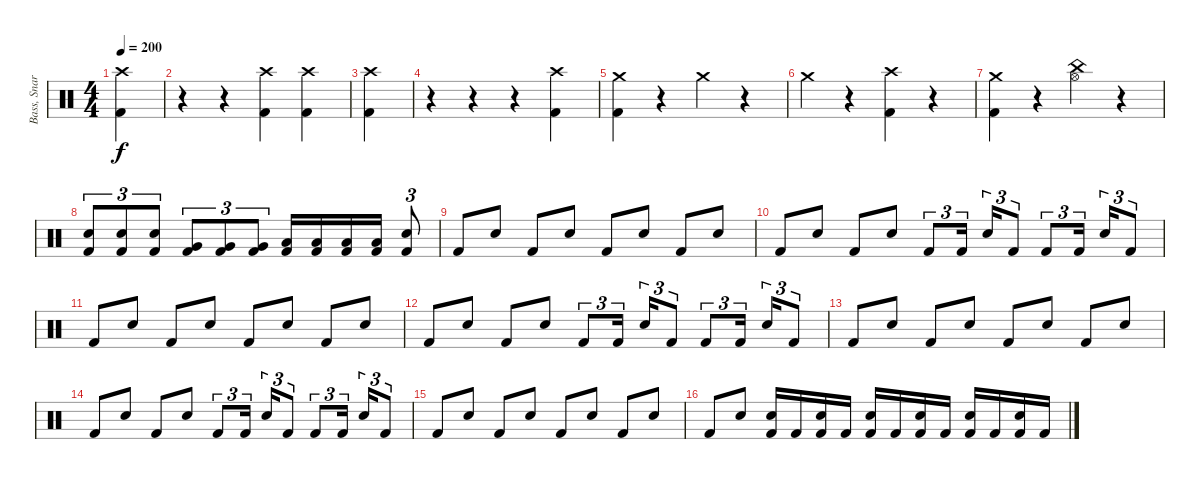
\track ("Bass, Snare & Toms" "Bass, Snar") {instrument percussion}
\staff {score}
\articulation defaults
\ts (4 4)
\tempo 200
\clef neutral
\ks c
("Crash high (hit)" "Kick (hit) 2").4{dy f} |
r.4 r.4 ("Crash high (hit)" "Kick (hit) 2").4 ("Crash high (hit)" "Kick (hit) 2").4 |
("Crash high (hit)" "Kick (hit) 2").4 |
r.4 r.4 r.4 ("Crash high (hit)" "Kick (hit) 2").4 |
("Crash medium (hit)" "Kick (hit) 2").4 r.4 "Crash medium (hit)".4 r.4 |
"Crash medium (hit)".4 r.4 ("Crash high (hit)" "Kick (hit) 2").4 r.4 |
("Crash medium (hit)" "Kick (hit) 2").4 r.4 ("Hi-Hat (open)" "China (hit)").4 r.4 |
("Electric Snare (hit)" "Kick (hit) 2").8{tu (3 2)} ("Electric Snare (hit)" "Kick (hit) 2").8{tu (3 2)} ("Electric Snare (hit)" "Kick (hit) 2").8{tu (3 2)} ("Very Low Tom (hit)" "Kick (hit) 2").8{tu (3 2)} ("Very Low Tom (hit)" "Kick (hit) 2").8{tu (3 2)} ("Very Low Tom (hit)" "Kick (hit) 2").8{tu (3 2)} ("Low Floor Tom (hit)" "Kick (hit) 2").16 ("Low Floor Tom (hit)" "Kick (hit) 2").16 ("Low Floor Tom (hit)" "Kick (hit) 2").16 ("Low Floor Tom (hit)" "Kick (hit) 2").16 ("Electric Snare (hit)" "Kick (hit) 2").8{tu (3 2)} |
"Kick (hit) 2".8 "Electric Snare (hit)".8 "Kick (hit) 2".8 "Electric Snare (hit)".8 "Kick (hit) 2".8 "Electric Snare (hit)".8 "Kick (hit) 2".8 "Electric Snare (hit)".8 |
"Kick (hit) 2".8 "Electric Snare (hit)".8 "Kick (hit) 2".8 "Electric Snare (hit)".8 "Kick (hit) 2".8{tu (3 2)} "Kick (hit) 2".16{tu (3 2)} "Electric Snare (hit)".16{tu (3 2)} "Kick (hit) 2".8{tu (3 2)} "Kick (hit) 2".8{tu (3 2)} "Kick (hit) 2".16{tu (3 2)} "Electric Snare (hit)".16{tu (3 2)} "Kick (hit) 2".8{tu (3 2)} |
"Kick (hit) 2".8 "Electric Snare (hit)".8 "Kick (hit) 2".8 "Electric Snare (hit)".8 "Kick (hit) 2".8 "Electric Snare (hit)".8 "Kick (hit) 2".8 "Electric Snare (hit)".8 |
"Kick (hit) 2".8 "Electric Snare (hit)".8 "Kick (hit) 2".8 "Electric Snare (hit)".8 "Kick (hit) 2".8{tu (3 2)} "Kick (hit) 2".16{tu (3 2)} "Electric Snare (hit)".16{tu (3 2)} "Kick (hit) 2".8{tu (3 2)} "Kick (hit) 2".8{tu (3 2)} "Kick (hit) 2".16{tu (3 2)} "Electric Snare (hit)".16{tu (3 2)} "Kick (hit) 2".8{tu (3 2)} |
"Kick (hit) 2".8 "Electric Snare (hit)".8 "Kick (hit) 2".8 "Electric Snare (hit)".8 "Kick (hit) 2".8 "Electric Snare (hit)".8 "Kick (hit) 2".8 "Electric Snare (hit)".8 |
"Kick (hit) 2".8 "Electric Snare (hit)".8 "Kick (hit) 2".8 "Electric Snare (hit)".8 "Kick (hit) 2".8{tu (3 2)} "Kick (hit) 2".16{tu (3 2)} "Electric Snare (hit)".16{tu (3 2)} "Kick (hit) 2".8{tu (3 2)} "Kick (hit) 2".8{tu (3 2)} "Kick (hit) 2".16{tu (3 2)} "Electric Snare (hit)".16{tu (3 2)} "Kick (hit) 2".8{tu (3 2)} |
"Kick (hit) 2".8 "Electric Snare (hit)".8 "Kick (hit) 2".8 "Electric Snare (hit)".8 "Kick (hit) 2".8 "Electric Snare (hit)".8 "Kick (hit) 2".8 "Electric Snare (hit)".8 |
"Kick (hit) 2".8 "Electric Snare (hit)".8 ("Electric Snare (hit)" "Kick (hit) 2").16 "Kick (hit) 2".16 ("Electric Snare (hit)" "Kick (hit) 2").16 "Kick (hit) 2".16 ("Electric Snare (hit)" "Kick (hit) 2").16 "Kick (hit) 2".16 ("Electric Snare (hit)" "Kick (hit) 2").16 "Kick (hit) 2".16 ("Electric Snare (hit)" "Kick (hit) 2").16 "Kick (hit) 2".16 ("Electric Snare (hit)" "Kick (hit) 2").16 "Kick (hit) 2".16
